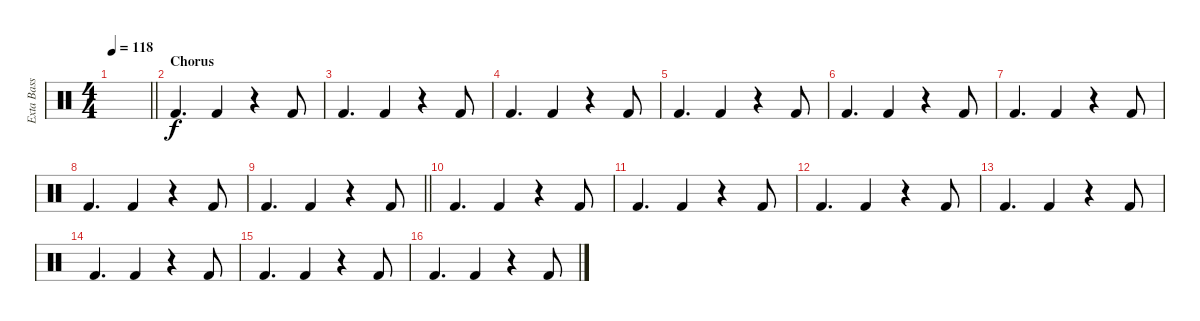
\track ("Exta Bass Boost" "Exta Bass ") {instrument percussion}
\staff {score}
\articulation defaults
\ts (4 4)
\tempo 118
\clef neutral
\barLineRight lightlight
\ks c
|
\section ("" "Chorus")
"Kick (hit) 2".4{d} "Kick (hit) 2".4 r.4 "Kick (hit) 2".8 |
"Kick (hit) 2".4{d} "Kick (hit) 2".4 r.4 "Kick (hit) 2".8 |
"Kick (hit) 2".4{d} "Kick (hit) 2".4 r.4 "Kick (hit) 2".8 |
"Kick (hit) 2".4{d} "Kick (hit) 2".4 r.4 "Kick (hit) 2".8 |
"Kick (hit) 2".4{d} "Kick (hit) 2".4 r.4 "Kick (hit) 2".8 |
"Kick (hit) 2".4{d} "Kick (hit) 2".4 r.4 "Kick (hit) 2".8 |
"Kick (hit) 2".4{d} "Kick (hit) 2".4 r.4 "Kick (hit) 2".8 |
\barLineRight lightlight "Kick (hit) 2".4{d} "Kick (hit) 2".4
r.4 "Kick (hit) 2".8 |
"Kick (hit) 2".4{d} "Kick (hit) 2".4 r.4 "Kick (hit) 2".8 |
"Kick (hit) 2".4{d} "Kick (hit) 2".4 r.4 "Kick (hit) 2".8 |
"Kick (hit) 2".4{d} "Kick (hit) 2".4 r.4 "Kick (hit) 2".8 |
"Kick (hit) 2".4{d} "Kick (hit) 2".4 r.4 "Kick (hit) 2".8 |
"Kick (hit) 2".4{d} "Kick (hit) 2".4 r.4 "Kick (hit) 2".8 |
"Kick (hit) 2".4{d} "Kick (hit) 2".4 r.4 "Kick (hit) 2".8 |
"Kick (hit) 2".4{d} "Kick (hit) 2".4 r.4 "Kick (hit) 2".8
